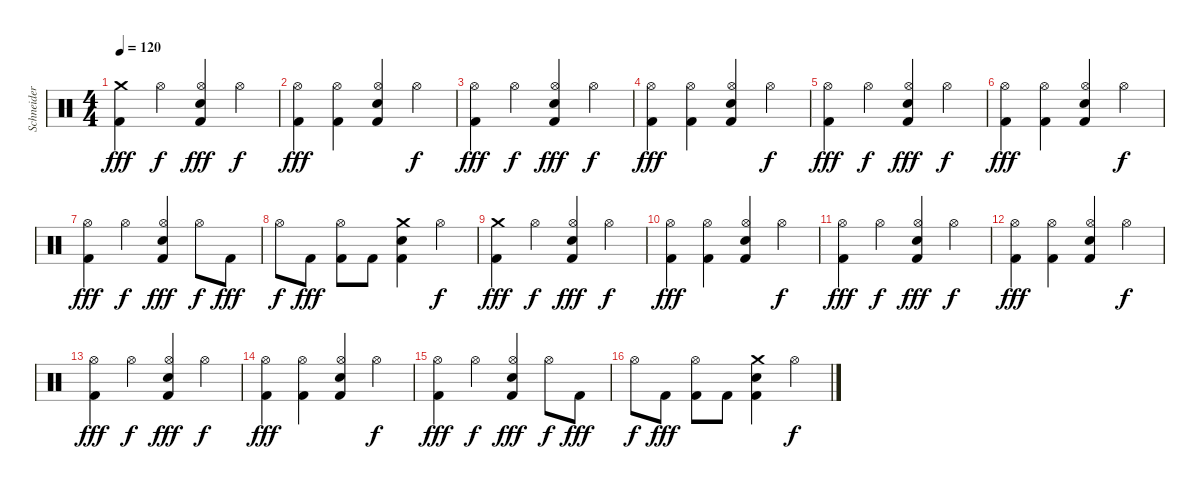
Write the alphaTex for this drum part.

\track ("Schneider" "Schneider") {instrument percussion}
\staff {score}
\articulation defaults
\ts (4 4)
\tempo 120
\clef neutral
\ks c
("Crash medium (hit)" "Kick (hit) 2").4{dy fff} "Hi-Hat (open)".4{dy f} ("Hi-Hat (open)" "Kick (hit) 2" "Snare (hit) 2").4{dy fff} "Hi-Hat (open)".4{dy f} |
("Hi-Hat (open)" "Kick (hit) 2").4{dy fff} ("Hi-Hat (open)" "Kick (hit) 2").4 ("Hi-Hat (open)" "Kick (hit) 2" "Snare (hit) 2").4 "Hi-Hat (open)".4{dy f} |
("Hi-Hat (open)" "Kick (hit) 2").4{dy fff} "Hi-Hat (open)".4{dy f} ("Hi-Hat (open)" "Kick (hit) 2" "Snare (hit) 2").4{dy fff} "Hi-Hat (open)".4{dy f} |
("Hi-Hat (open)" "Kick (hit) 2").4{dy fff} ("Hi-Hat (open)" "Kick (hit) 2").4 ("Hi-Hat (open)" "Kick (hit) 2" "Snare (hit) 2").4 "Hi-Hat (open)".4{dy f} |
("Hi-Hat (open)" "Kick (hit) 2").4{dy fff} "Hi-Hat (open)".4{dy f} ("Hi-Hat (open)" "Kick (hit) 2" "Snare (hit) 2").4{dy fff} "Hi-Hat (open)".4{dy f} |
("Hi-Hat (open)" "Kick (hit) 2").4{dy fff} ("Hi-Hat (open)" "Kick (hit) 2").4 ("Hi-Hat (open)" "Kick (hit) 2" "Snare (hit) 2").4 "Hi-Hat (open)".4{dy f} |
("Hi-Hat (open)" "Kick (hit) 2").4{dy fff} "Hi-Hat (open)".4{dy f} ("Hi-Hat (open)" "Kick (hit) 2" "Snare (hit) 2").4{dy fff} "Hi-Hat (open)".8{dy f} "Kick (hit) 2".8{dy fff} |
"Hi-Hat (open)".8{dy f} "Kick (hit) 2".8{dy fff} ("Hi-Hat (open)" "Kick (hit) 2").8 "Kick (hit) 2".8 ("Crash medium (hit)" "Kick (hit) 2" "Snare (hit) 2").4 "Hi-Hat (open)".4{dy f} |
("Crash medium (hit)" "Kick (hit) 2").4{dy fff} "Hi-Hat (open)".4{dy f} ("Hi-Hat (open)" "Kick (hit) 2" "Snare (hit) 2").4{dy fff} "Hi-Hat (open)".4{dy f} |
("Hi-Hat (open)" "Kick (hit) 2").4{dy fff} ("Hi-Hat (open)" "Kick (hit) 2").4 ("Hi-Hat (open)" "Kick (hit) 2" "Snare (hit) 2").4 "Hi-Hat (open)".4{dy f} |
("Hi-Hat (open)" "Kick (hit) 2").4{dy fff} "Hi-Hat (open)".4{dy f} ("Hi-Hat (open)" "Kick (hit) 2" "Snare (hit) 2").4{dy fff} "Hi-Hat (open)".4{dy f} |
("Hi-Hat (open)" "Kick (hit) 2").4{dy fff} ("Hi-Hat (open)" "Kick (hit) 2").4 ("Hi-Hat (open)" "Kick (hit) 2" "Snare (hit) 2").4 "Hi-Hat (open)".4{dy f} |
("Hi-Hat (open)" "Kick (hit) 2").4{dy fff} "Hi-Hat (open)".4{dy f} ("Hi-Hat (open)" "Kick (hit) 2" "Snare (hit) 2").4{dy fff} "Hi-Hat (open)".4{dy f} |
("Hi-Hat (open)" "Kick (hit) 2").4{dy fff} ("Hi-Hat (open)" "Kick (hit) 2").4 ("Hi-Hat (open)" "Kick (hit) 2" "Snare (hit) 2").4 "Hi-Hat (open)".4{dy f} |
("Hi-Hat (open)" "Kick (hit) 2").4{dy fff} "Hi-Hat (open)".4{dy f} ("Hi-Hat (open)" "Kick (hit) 2" "Snare (hit) 2").4{dy fff} "Hi-Hat (open)".8{dy f} "Kick (hit) 2".8{dy fff} |
"Hi-Hat (open)".8{dy f} "Kick (hit) 2".8{dy fff} ("Hi-Hat (open)" "Kick (hit) 2").8 "Kick (hit) 2".8 ("Crash medium (hit)" "Kick (hit) 2" "Snare (hit) 2").4 "Hi-Hat (open)".4{dy f}
